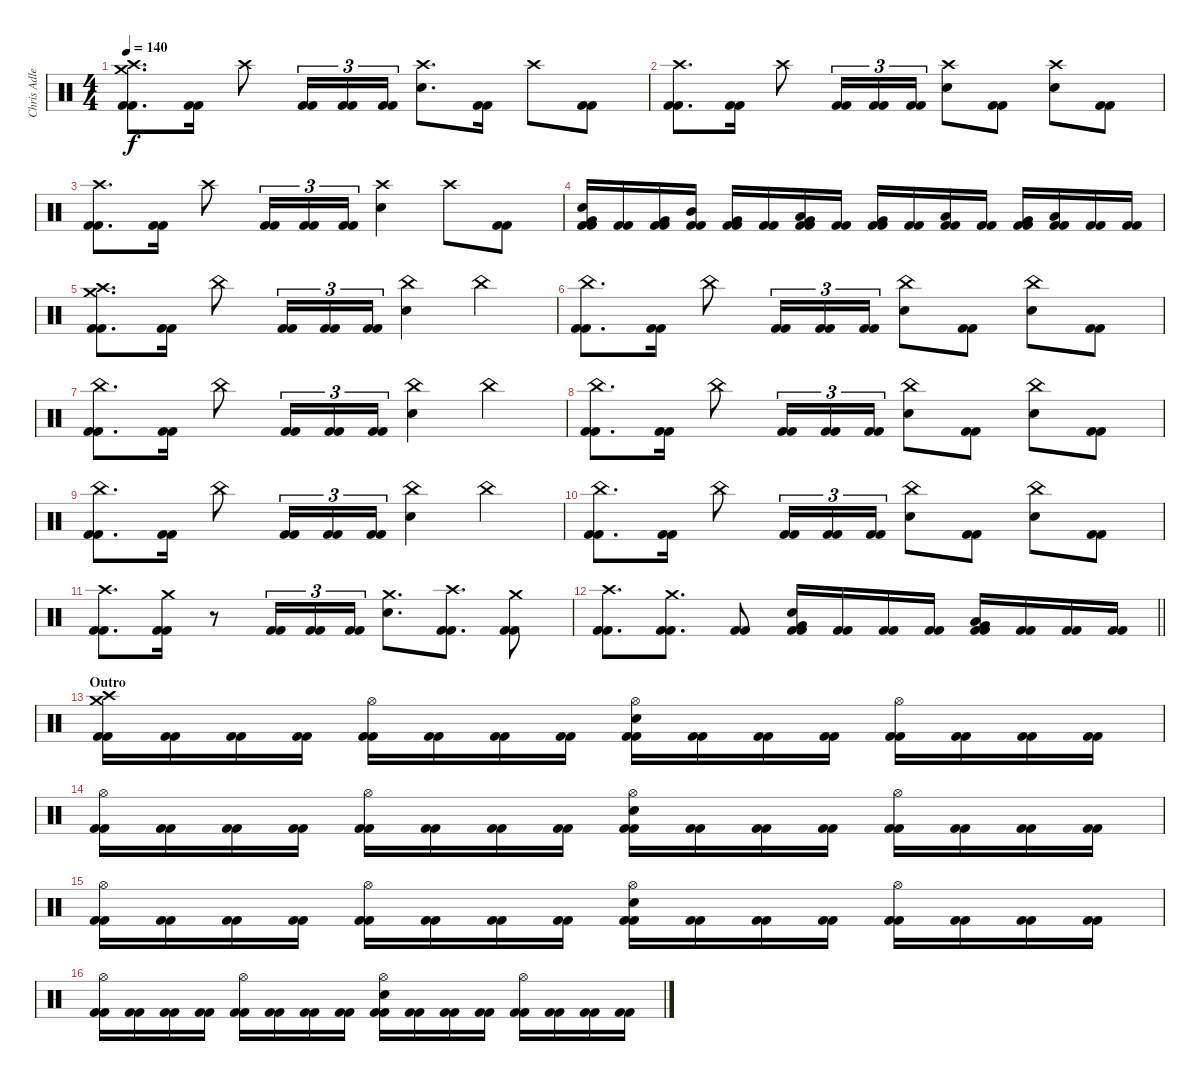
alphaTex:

\track ("Chris Adler" "Chris Adle") {instrument percussion}
\staff {score}
\articulation defaults
\ts (4 4)
\tempo 140
\clef neutral
\ks c
("Crash medium (hit)" "Crash high (hit)" "Kick (hit) 2" "Kick (hit) 2").8{d dy f} ("Kick (hit) 2" "Kick (hit) 2").16 "Crash high (hit)".8 ("Kick (hit) 2" "Kick (hit) 2").16{tu (3 2)} ("Kick (hit) 2" "Kick (hit) 2").16{tu (3 2)} ("Kick (hit) 2" "Kick (hit) 2").16{tu (3 2)} ("Crash high (hit)" "Electric Snare (hit)").8{d} ("Kick (hit) 2" "Kick (hit) 2").16 "Crash high (hit)".8 ("Kick (hit) 2" "Kick (hit) 2").8 |
("Crash high (hit)" "Kick (hit) 2" "Kick (hit) 2").8{d} ("Kick (hit) 2" "Kick (hit) 2").16 "Crash high (hit)".8 ("Kick (hit) 2" "Kick (hit) 2").16{tu (3 2)} ("Kick (hit) 2" "Kick (hit) 2").16{tu (3 2)} ("Kick (hit) 2" "Kick (hit) 2").16{tu (3 2)} ("Crash high (hit)" "Electric Snare (hit)").8 ("Kick (hit) 2" "Kick (hit) 2").8 ("Crash high (hit)" "Electric Snare (hit)").8 ("Kick (hit) 2" "Kick (hit) 2").8 |
("Crash high (hit)" "Kick (hit) 2" "Kick (hit) 2").8{d} ("Kick (hit) 2" "Kick (hit) 2").16 "Crash high (hit)".8 ("Kick (hit) 2" "Kick (hit) 2").16{tu (3 2)} ("Kick (hit) 2" "Kick (hit) 2").16{tu (3 2)} ("Kick (hit) 2" "Kick (hit) 2").16{tu (3 2)} ("Crash high (hit)" "Electric Snare (hit)").4 "Crash high (hit)".8 ("Kick (hit) 2" "Kick (hit) 2").8 |
("Very Low Tom (hit)" "Electric Snare (hit)" "Kick (hit) 2" "Kick (hit) 2").16 ("Kick (hit) 2" "Kick (hit) 2").16 ("Very Low Tom (hit)" "Kick (hit) 2" "Kick (hit) 2").16 ("Mid Tom (hit)" "Kick (hit) 2" "Kick (hit) 2").16 ("Very Low Tom (hit)" "Kick (hit) 2" "Kick (hit) 2").16 ("Kick (hit) 2" "Kick (hit) 2").16 ("Low Tom (hit)" "Very Low Tom (hit)" "Kick (hit) 2" "Kick (hit) 2").16 ("Kick (hit) 2" "Kick (hit) 2").16 ("Very Low Tom (hit)" "Kick (hit) 2" "Kick (hit) 2").16 ("Kick (hit) 2" "Kick (hit) 2").16 ("Low Floor Tom (hit)" "Kick (hit) 2" "Kick (hit) 2").16 ("Kick (hit) 2" "Kick (hit) 2").16 ("Very Low Tom (hit)" "Kick (hit) 2" "Kick (hit) 2").16 ("Low Floor Tom (hit)" "Kick (hit) 2" "Kick (hit) 2").16 ("Kick (hit) 2" "Kick (hit) 2").16 ("Kick (hit) 2" "Kick (hit) 2").16 |
("Crash medium (hit)" "Crash high (hit)" "Kick (hit) 2" "Kick (hit) 2").8{d} ("Kick (hit) 2" "Kick (hit) 2").16 "China (hit)".8 ("Kick (hit) 2" "Kick (hit) 2").16{tu (3 2)} ("Kick (hit) 2" "Kick (hit) 2").16{tu (3 2)} ("Kick (hit) 2" "Kick (hit) 2").16{tu (3 2)} ("China (hit)" "Electric Snare (hit)").4 "China (hit)".4 |
("China (hit)" "Kick (hit) 2" "Kick (hit) 2").8{d} ("Kick (hit) 2" "Kick (hit) 2").16 "China (hit)".8 ("Kick (hit) 2" "Kick (hit) 2").16{tu (3 2)} ("Kick (hit) 2" "Kick (hit) 2").16{tu (3 2)} ("Kick (hit) 2" "Kick (hit) 2").16{tu (3 2)} ("China (hit)" "Electric Snare (hit)").8 ("Kick (hit) 2" "Kick (hit) 2").8 ("China (hit)" "Electric Snare (hit)").8 ("Kick (hit) 2" "Kick (hit) 2").8 |
("China (hit)" "Kick (hit) 2" "Kick (hit) 2").8{d} ("Kick (hit) 2" "Kick (hit) 2").16 "China (hit)".8 ("Kick (hit) 2" "Kick (hit) 2").16{tu (3 2)} ("Kick (hit) 2" "Kick (hit) 2").16{tu (3 2)} ("Kick (hit) 2" "Kick (hit) 2").16{tu (3 2)} ("China (hit)" "Electric Snare (hit)").4 "China (hit)".4 |
("China (hit)" "Kick (hit) 2" "Kick (hit) 2").8{d} ("Kick (hit) 2" "Kick (hit) 2").16 "China (hit)".8 ("Kick (hit) 2" "Kick (hit) 2").16{tu (3 2)} ("Kick (hit) 2" "Kick (hit) 2").16{tu (3 2)} ("Kick (hit) 2" "Kick (hit) 2").16{tu (3 2)} ("China (hit)" "Electric Snare (hit)").8 ("Kick (hit) 2" "Kick (hit) 2").8 ("China (hit)" "Electric Snare (hit)").8 ("Kick (hit) 2" "Kick (hit) 2").8 |
("China (hit)" "Kick (hit) 2" "Kick (hit) 2").8{d} ("Kick (hit) 2" "Kick (hit) 2").16 "China (hit)".8 ("Kick (hit) 2" "Kick (hit) 2").16{tu (3 2)} ("Kick (hit) 2" "Kick (hit) 2").16{tu (3 2)} ("Kick (hit) 2" "Kick (hit) 2").16{tu (3 2)} ("China (hit)" "Electric Snare (hit)").4 "China (hit)".4 |
("China (hit)" "Kick (hit) 2" "Kick (hit) 2").8{d} ("Kick (hit) 2" "Kick (hit) 2").16 "China (hit)".8 ("Kick (hit) 2" "Kick (hit) 2").16{tu (3 2)} ("Kick (hit) 2" "Kick (hit) 2").16{tu (3 2)} ("Kick (hit) 2" "Kick (hit) 2").16{tu (3 2)} ("China (hit)" "Electric Snare (hit)").8 ("Kick (hit) 2" "Kick (hit) 2").8 ("China (hit)" "Electric Snare (hit)").8 ("Kick (hit) 2" "Kick (hit) 2").8 |
("Crash high (hit)" "Kick (hit) 2" "Kick (hit) 2").8{d} ("Crash medium (hit)" "Kick (hit) 2" "Kick (hit) 2").16 r.8 ("Kick (hit) 2" "Kick (hit) 2").16{tu (3 2)} ("Kick (hit) 2" "Kick (hit) 2").16{tu (3 2)} ("Kick (hit) 2" "Kick (hit) 2").16{tu (3 2)} ("Crash medium (hit)" "Electric Snare (hit)").8{d} ("Crash high (hit)" "Kick (hit) 2" "Kick (hit) 2").8{d} ("Crash medium (hit)" "Kick (hit) 2" "Kick (hit) 2").8 |
\barLineRight lightlight
("Crash high (hit)" "Kick (hit) 2" "Kick (hit) 2").8{d} ("Crash medium (hit)" "Kick (hit) 2" "Kick (hit) 2").8{d} ("Kick (hit) 2" "Kick (hit) 2").8 ("Very Low Tom (hit)" "Electric Snare (hit)" "Kick (hit) 2" "Kick (hit) 2").16 ("Kick (hit) 2" "Kick (hit) 2").16 ("Kick (hit) 2" "Kick (hit) 2").16 ("Kick (hit) 2" "Kick (hit) 2").16 ("Low Tom (hit)" "Very Low Tom (hit)" "Kick (hit) 2" "Kick (hit) 2").16 ("Kick (hit) 2" "Kick (hit) 2").16 ("Kick (hit) 2" "Kick (hit) 2").16 ("Kick (hit) 2" "Kick (hit) 2").16 |
\section ("" "Outro")
("Crash medium (hit)" "Crash high (hit)" "Kick (hit) 2" "Kick (hit) 2").16 ("Kick (hit) 2" "Kick (hit) 2").16 ("Kick (hit) 2" "Kick (hit) 2").16 ("Kick (hit) 2" "Kick (hit) 2").16 ("Hi-Hat (open)" "Kick (hit) 2" "Kick (hit) 2").16 ("Kick (hit) 2" "Kick (hit) 2").16 ("Kick (hit) 2" "Kick (hit) 2").16 ("Kick (hit) 2" "Kick (hit) 2").16 ("Hi-Hat (open)" "Electric Snare (hit)" "Kick (hit) 2" "Kick (hit) 2").16 ("Kick (hit) 2" "Kick (hit) 2").16 ("Kick (hit) 2" "Kick (hit) 2").16 ("Kick (hit) 2" "Kick (hit) 2").16 ("Hi-Hat (open)" "Kick (hit) 2" "Kick (hit) 2").16 ("Kick (hit) 2" "Kick (hit) 2").16 ("Kick (hit) 2" "Kick (hit) 2").16 ("Kick (hit) 2" "Kick (hit) 2").16 |
("Hi-Hat (open)" "Kick (hit) 2" "Kick (hit) 2").16 ("Kick (hit) 2" "Kick (hit) 2").16 ("Kick (hit) 2" "Kick (hit) 2").16 ("Kick (hit) 2" "Kick (hit) 2").16 ("Hi-Hat (open)" "Kick (hit) 2" "Kick (hit) 2").16 ("Kick (hit) 2" "Kick (hit) 2").16 ("Kick (hit) 2" "Kick (hit) 2").16 ("Kick (hit) 2" "Kick (hit) 2").16 ("Hi-Hat (open)" "Electric Snare (hit)" "Kick (hit) 2" "Kick (hit) 2").16 ("Kick (hit) 2" "Kick (hit) 2").16 ("Kick (hit) 2" "Kick (hit) 2").16 ("Kick (hit) 2" "Kick (hit) 2").16 ("Hi-Hat (open)" "Kick (hit) 2" "Kick (hit) 2").16 ("Kick (hit) 2" "Kick (hit) 2").16 ("Kick (hit) 2" "Kick (hit) 2").16 ("Kick (hit) 2" "Kick (hit) 2").16 |
("Hi-Hat (open)" "Kick (hit) 2" "Kick (hit) 2").16 ("Kick (hit) 2" "Kick (hit) 2").16 ("Kick (hit) 2" "Kick (hit) 2").16 ("Kick (hit) 2" "Kick (hit) 2").16 ("Hi-Hat (open)" "Kick (hit) 2" "Kick (hit) 2").16 ("Kick (hit) 2" "Kick (hit) 2").16 ("Kick (hit) 2" "Kick (hit) 2").16 ("Kick (hit) 2" "Kick (hit) 2").16 ("Hi-Hat (open)" "Electric Snare (hit)" "Kick (hit) 2" "Kick (hit) 2").16 ("Kick (hit) 2" "Kick (hit) 2").16 ("Kick (hit) 2" "Kick (hit) 2").16 ("Kick (hit) 2" "Kick (hit) 2").16 ("Hi-Hat (open)" "Kick (hit) 2" "Kick (hit) 2").16 ("Kick (hit) 2" "Kick (hit) 2").16 ("Kick (hit) 2" "Kick (hit) 2").16 ("Kick (hit) 2" "Kick (hit) 2").16 |
("Hi-Hat (open)" "Kick (hit) 2" "Kick (hit) 2").16 ("Kick (hit) 2" "Kick (hit) 2").16 ("Kick (hit) 2" "Kick (hit) 2").16 ("Kick (hit) 2" "Kick (hit) 2").16 ("Hi-Hat (open)" "Kick (hit) 2" "Kick (hit) 2").16 ("Kick (hit) 2" "Kick (hit) 2").16 ("Kick (hit) 2" "Kick (hit) 2").16 ("Kick (hit) 2" "Kick (hit) 2").16 ("Hi-Hat (open)" "Electric Snare (hit)" "Kick (hit) 2" "Kick (hit) 2").16 ("Kick (hit) 2" "Kick (hit) 2").16 ("Kick (hit) 2" "Kick (hit) 2").16 ("Kick (hit) 2" "Kick (hit) 2").16 ("Hi-Hat (open)" "Kick (hit) 2" "Kick (hit) 2").16 ("Kick (hit) 2" "Kick (hit) 2").16 ("Kick (hit) 2" "Kick (hit) 2").16 ("Kick (hit) 2" "Kick (hit) 2").16
